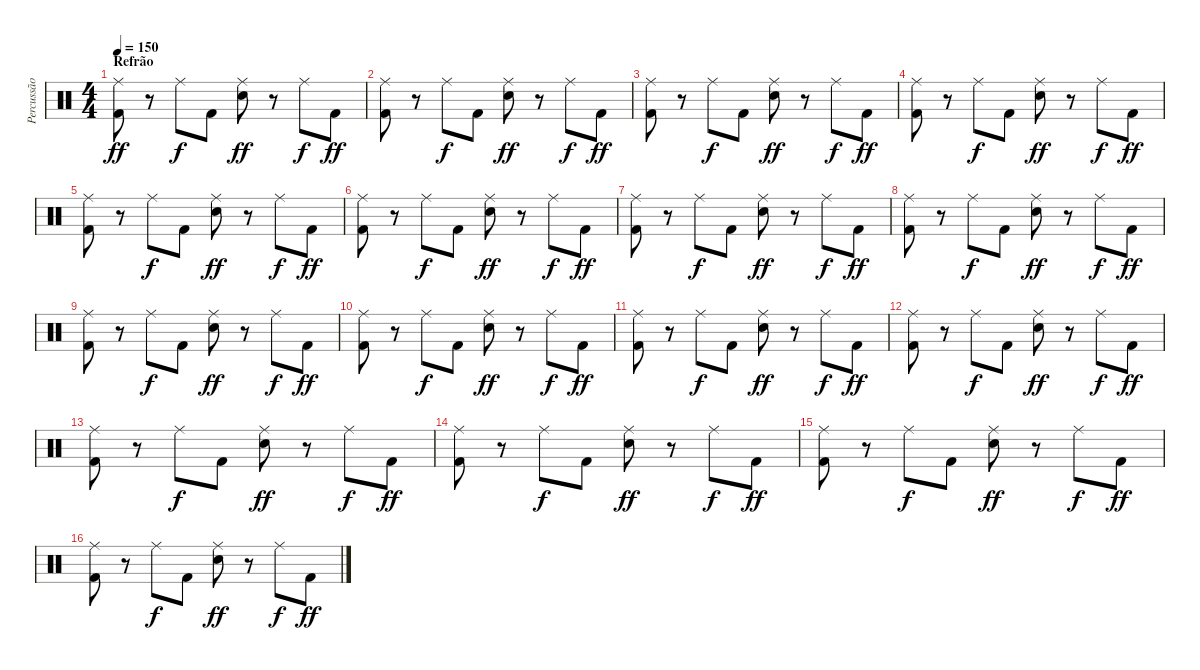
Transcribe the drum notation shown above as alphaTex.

\track ("Percussão" "Percussão") {instrument percussion}
\staff {score}
\articulation defaults
\ts (4 4)
\section ("" "Refrão")
\tempo 150
\clef neutral
\ks c
("Kick (hit) 2" "Ride (middle)").8{dy ff} r.8 "Ride (middle)".8{dy f} "Kick (hit) 2".8 ("Electric Snare (hit)" "Ride (middle)").8{dy ff} r.8 "Ride (middle)".8{dy f} "Kick (hit) 2".8{dy ff} |
("Kick (hit) 2" "Ride (middle)").8 r.8 "Ride (middle)".8{dy f} "Kick (hit) 2".8 ("Electric Snare (hit)" "Ride (middle)").8{dy ff} r.8 "Ride (middle)".8{dy f} "Kick (hit) 2".8{dy ff} |
("Kick (hit) 2" "Ride (middle)").8 r.8 "Ride (middle)".8{dy f} "Kick (hit) 2".8 ("Electric Snare (hit)" "Ride (middle)").8{dy ff} r.8 "Ride (middle)".8{dy f} "Kick (hit) 2".8{dy ff} |
("Kick (hit) 2" "Ride (middle)").8 r.8 "Ride (middle)".8{dy f} "Kick (hit) 2".8 ("Electric Snare (hit)" "Ride (middle)").8{dy ff} r.8 "Ride (middle)".8{dy f} "Kick (hit) 2".8{dy ff} |
("Kick (hit) 2" "Ride (middle)").8 r.8 "Ride (middle)".8{dy f} "Kick (hit) 2".8 ("Electric Snare (hit)" "Ride (middle)").8{dy ff} r.8 "Ride (middle)".8{dy f} "Kick (hit) 2".8{dy ff} |
("Kick (hit) 2" "Ride (middle)").8 r.8 "Ride (middle)".8{dy f} "Kick (hit) 2".8 ("Electric Snare (hit)" "Ride (middle)").8{dy ff} r.8 "Ride (middle)".8{dy f} "Kick (hit) 2".8{dy ff} |
("Kick (hit) 2" "Ride (middle)").8 r.8 "Ride (middle)".8{dy f} "Kick (hit) 2".8 ("Electric Snare (hit)" "Ride (middle)").8{dy ff} r.8 "Ride (middle)".8{dy f} "Kick (hit) 2".8{dy ff} |
("Kick (hit) 2" "Ride (middle)").8 r.8 "Ride (middle)".8{dy f} "Kick (hit) 2".8 ("Electric Snare (hit)" "Ride (middle)").8{dy ff} r.8 "Ride (middle)".8{dy f} "Kick (hit) 2".8{dy ff} |
("Kick (hit) 2" "Ride (middle)").8 r.8 "Ride (middle)".8{dy f} "Kick (hit) 2".8 ("Electric Snare (hit)" "Ride (middle)").8{dy ff} r.8 "Ride (middle)".8{dy f} "Kick (hit) 2".8{dy ff} |
("Kick (hit) 2" "Ride (middle)").8 r.8 "Ride (middle)".8{dy f} "Kick (hit) 2".8 ("Electric Snare (hit)" "Ride (middle)").8{dy ff} r.8 "Ride (middle)".8{dy f} "Kick (hit) 2".8{dy ff} |
("Kick (hit) 2" "Ride (middle)").8 r.8 "Ride (middle)".8{dy f} "Kick (hit) 2".8 ("Electric Snare (hit)" "Ride (middle)").8{dy ff} r.8 "Ride (middle)".8{dy f} "Kick (hit) 2".8{dy ff} |
("Kick (hit) 2" "Ride (middle)").8 r.8 "Ride (middle)".8{dy f} "Kick (hit) 2".8 ("Electric Snare (hit)" "Ride (middle)").8{dy ff} r.8 "Ride (middle)".8{dy f} "Kick (hit) 2".8{dy ff} |
("Kick (hit) 2" "Ride (middle)").8 r.8 "Ride (middle)".8{dy f} "Kick (hit) 2".8 ("Electric Snare (hit)" "Ride (middle)").8{dy ff} r.8 "Ride (middle)".8{dy f} "Kick (hit) 2".8{dy ff} |
("Kick (hit) 2" "Ride (middle)").8 r.8 "Ride (middle)".8{dy f} "Kick (hit) 2".8 ("Electric Snare (hit)" "Ride (middle)").8{dy ff} r.8 "Ride (middle)".8{dy f} "Kick (hit) 2".8{dy ff} |
("Kick (hit) 2" "Ride (middle)").8 r.8 "Ride (middle)".8{dy f} "Kick (hit) 2".8 ("Electric Snare (hit)" "Ride (middle)").8{dy ff} r.8 "Ride (middle)".8{dy f} "Kick (hit) 2".8{dy ff} |
("Kick (hit) 2" "Ride (middle)").8 r.8 "Ride (middle)".8{dy f} "Kick (hit) 2".8 ("Electric Snare (hit)" "Ride (middle)").8{dy ff} r.8 "Ride (middle)".8{dy f} "Kick (hit) 2".8{dy ff}
